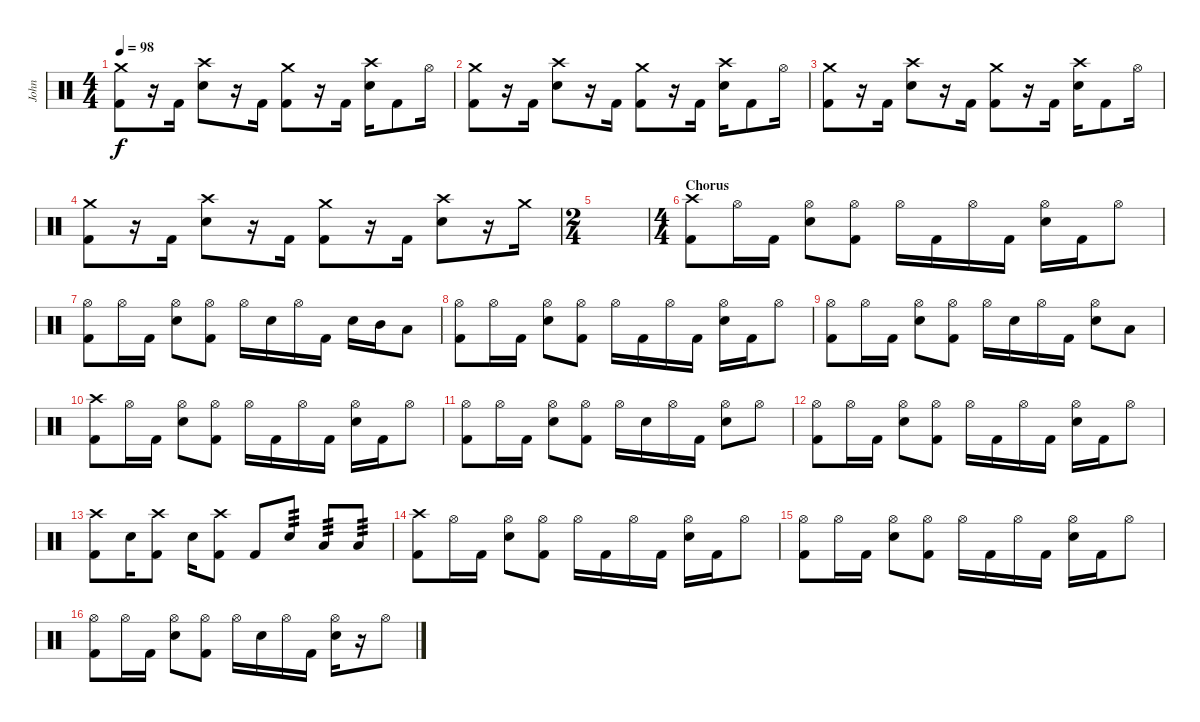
\track ("John" "John") {instrument percussion}
\staff {score}
\articulation defaults
\ts (4 4)
\tempo 98
\clef neutral
\ks c
("Crash medium (hit)" "Kick (hit) 2").8{dy f} r.16 "Kick (hit) 2".16 ("Crash high (hit)" "Snare (hit) 2").8 r.16 "Kick (hit) 2".16 ("Crash medium (hit)" "Kick (hit) 2").8 r.16 "Kick (hit) 2".16 ("Crash high (hit)" "Snare (hit) 2").16 "Kick (hit) 2".8 "Hi-Hat (open)".16 |
("Crash medium (hit)" "Kick (hit) 2").8 r.16 "Kick (hit) 2".16 ("Crash high (hit)" "Snare (hit) 2").8 r.16 "Kick (hit) 2".16 ("Crash medium (hit)" "Kick (hit) 2").8 r.16 "Kick (hit) 2".16 ("Crash high (hit)" "Snare (hit) 2").16 "Kick (hit) 2".8 "Hi-Hat (open)".16 |
("Crash medium (hit)" "Kick (hit) 2").8 r.16 "Kick (hit) 2".16 ("Crash high (hit)" "Snare (hit) 2").8 r.16 "Kick (hit) 2".16 ("Crash medium (hit)" "Kick (hit) 2").8 r.16 "Kick (hit) 2".16 ("Crash high (hit)" "Snare (hit) 2").16 "Kick (hit) 2".8 "Hi-Hat (open)".16 |
("Crash medium (hit)" "Kick (hit) 2").8 r.16 "Kick (hit) 2".16 ("Crash high (hit)" "Snare (hit) 2").8 r.16 "Kick (hit) 2".16 ("Crash medium (hit)" "Kick (hit) 2").8 r.16 "Kick (hit) 2".16 ("Crash high (hit)" "Snare (hit) 2").8 r.16 "Crash medium (hit)".16 |
\ts (2 4)
|
\ts (4 4)
\section ("" "Chorus")
("Crash high (hit)" "Kick (hit) 2").8 "Hi-Hat (open)".16 "Kick (hit) 2".16 ("Hi-Hat (open)" "Snare (hit) 2").8 ("Hi-Hat (open)" "Kick (hit) 2").8 "Hi-Hat (open)".16 "Kick (hit) 2".16 "Hi-Hat (open)".16 "Kick (hit) 2".16 ("Hi-Hat (open)" "Snare (hit) 2").16 "Kick (hit) 2".16 "Hi-Hat (open)".8 |
("Hi-Hat (open)" "Kick (hit) 2").8 "Hi-Hat (open)".16 "Kick (hit) 2".16 ("Hi-Hat (open)" "Snare (hit) 2").8 ("Hi-Hat (open)" "Kick (hit) 2").8 "Hi-Hat (open)".16 "Snare (hit) 2".16 "Hi-Hat (open)".16 "Kick (hit) 2".16 "Snare (hit) 2".16 "Mid Tom (hit)".16 "Low Floor Tom (hit)".8 |
("Hi-Hat (open)" "Kick (hit) 2").8 "Hi-Hat (open)".16 "Kick (hit) 2".16 ("Hi-Hat (open)" "Snare (hit) 2").8 ("Hi-Hat (open)" "Kick (hit) 2").8 "Hi-Hat (open)".16 "Kick (hit) 2".16 "Hi-Hat (open)".16 "Kick (hit) 2".16 ("Hi-Hat (open)" "Snare (hit) 2").16 "Kick (hit) 2".16 "Hi-Hat (open)".8 |
("Hi-Hat (open)" "Kick (hit) 2").8 "Hi-Hat (open)".16 "Kick (hit) 2".16 ("Hi-Hat (open)" "Snare (hit) 2").8 ("Hi-Hat (open)" "Kick (hit) 2").8 "Hi-Hat (open)".16 "Snare (hit) 2".16 "Hi-Hat (open)".16 "Kick (hit) 2".16 ("Hi-Hat (open)" "Snare (hit) 2").8 "Low Floor Tom (hit)".8 |
("Crash high (hit)" "Kick (hit) 2").8 "Hi-Hat (open)".16 "Kick (hit) 2".16 ("Hi-Hat (open)" "Snare (hit) 2").8 ("Hi-Hat (open)" "Kick (hit) 2").8 "Hi-Hat (open)".16 "Kick (hit) 2".16 "Hi-Hat (open)".16 "Kick (hit) 2".16 ("Hi-Hat (open)" "Snare (hit) 2").16 "Kick (hit) 2".16 "Hi-Hat (open)".8 |
("Hi-Hat (open)" "Kick (hit) 2").8 "Hi-Hat (open)".16 "Kick (hit) 2".16 ("Hi-Hat (open)" "Snare (hit) 2").8 ("Hi-Hat (open)" "Kick (hit) 2").8 "Hi-Hat (open)".16 "Snare (hit) 2".16 "Hi-Hat (open)".16 "Kick (hit) 2".16 ("Hi-Hat (open)" "Snare (hit) 2").8 "Hi-Hat (open)".8 |
("Hi-Hat (open)" "Kick (hit) 2").8 "Hi-Hat (open)".16 "Kick (hit) 2".16 ("Hi-Hat (open)" "Snare (hit) 2").8 ("Hi-Hat (open)" "Kick (hit) 2").8 "Hi-Hat (open)".16 "Kick (hit) 2".16 "Hi-Hat (open)".16 "Kick (hit) 2".16 ("Hi-Hat (open)" "Snare (hit) 2").16 "Kick (hit) 2".16 "Hi-Hat (open)".8 |
("Crash high (hit)" "Kick (hit) 2").8 "Snare (hit) 2".16 ("Crash high (hit)" "Kick (hit) 2").8 "Snare (hit) 2".16 ("Crash high (hit)" "Kick (hit) 2").8 "Kick (hit) 2".8 "Snare (hit) 2".8{tp 3} "Low Tom (hit)".8{tp 3} "Low Floor Tom (hit)".8{tp 3} |
("Crash high (hit)" "Kick (hit) 2").8 "Hi-Hat (open)".16 "Kick (hit) 2".16 ("Hi-Hat (open)" "Snare (hit) 2").8 ("Hi-Hat (open)" "Kick (hit) 2").8 "Hi-Hat (open)".16 "Kick (hit) 2".16 "Hi-Hat (open)".16 "Kick (hit) 2".16 ("Hi-Hat (open)" "Snare (hit) 2").16 "Kick (hit) 2".16 "Hi-Hat (open)".8 |
("Hi-Hat (open)" "Kick (hit) 2").8 "Hi-Hat (open)".16 "Kick (hit) 2".16 ("Hi-Hat (open)" "Snare (hit) 2").8 ("Hi-Hat (open)" "Kick (hit) 2").8 "Hi-Hat (open)".16 "Kick (hit) 2".16 "Hi-Hat (open)".16 "Kick (hit) 2".16 ("Hi-Hat (open)" "Snare (hit) 2").16 "Kick (hit) 2".16 "Hi-Hat (open)".8 |
("Hi-Hat (open)" "Kick (hit) 2").8 "Hi-Hat (open)".16 "Kick (hit) 2".16 ("Hi-Hat (open)" "Snare (hit) 2").8 ("Hi-Hat (open)" "Kick (hit) 2").8 "Hi-Hat (open)".16 "Snare (hit) 2".16 "Hi-Hat (open)".16 "Kick (hit) 2".16 ("Hi-Hat (open)" "Snare (hit) 2").16 r.16 "Hi-Hat (open)".8
